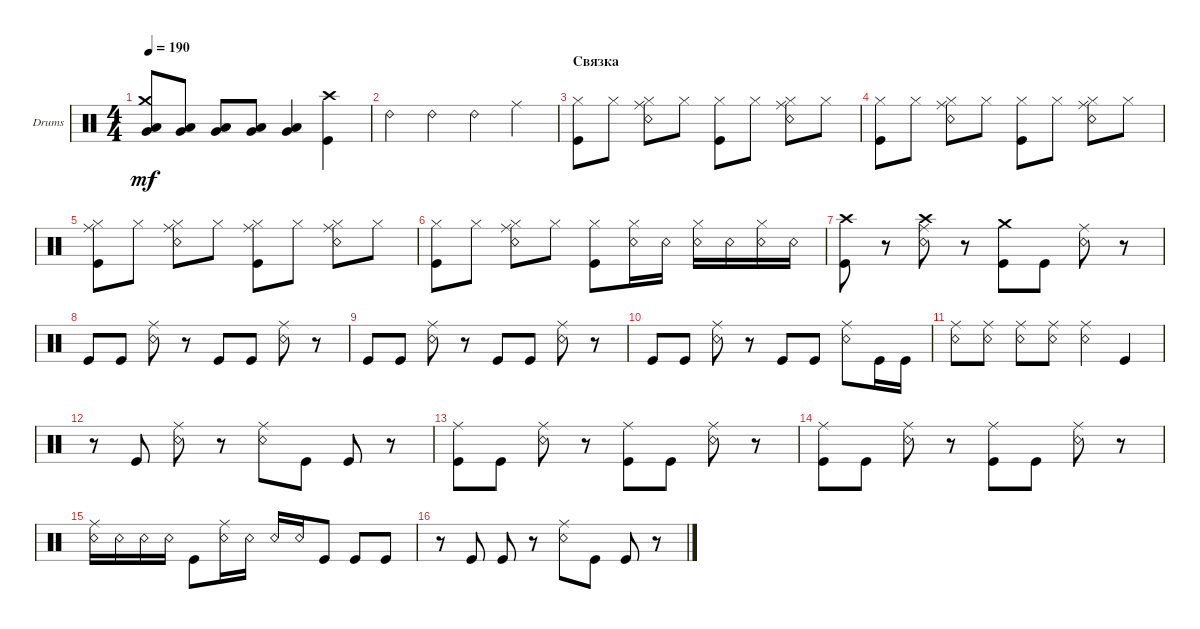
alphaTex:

\defaultSystemsLayout 4
\bracketExtendMode groupsimilarinstruments
\firstSystemTrackNameOrientation horizontal
\otherSystemsTrackNameOrientation horizontal
\track ("Drumkit" "Drums") {instrument percussion}
\staff {score}
\articulation defaults
\ts (4 4)
\tempo 190
\clef neutral
\ks c
("Very Low Tom (hit)" "Crash medium (hit)" "Low Tom (hit)").8{dy mf} ("Very Low Tom (hit)" "Low Tom (hit)").8 ("Very Low Tom (hit)" "Low Tom (hit)").8 ("Very Low Tom (hit)" "Low Tom (hit)").8 ("Very Low Tom (hit)" "Low Tom (hit)").4 ("Kick (hit)" "Crash high (hit)").4 |
"Ride (bell) 2".4 "Ride (bell) 2".4 "Ride (bell) 2".4 "Ride (middle)".4 |
\section ("" "Связка")
("Hi-Hat (closed)" "Kick (hit)").8 "Hi-Hat (closed)".8 ("Hi-Hat (closed)" "Snare (rim shot)" "Ride (middle)").8 "Hi-Hat (closed)".8 ("Hi-Hat (closed)" "Kick (hit)").8 "Hi-Hat (closed)".8 ("Hi-Hat (closed)" "Snare (rim shot)" "Ride (middle)").8 "Hi-Hat (closed)".8 |
("Hi-Hat (closed)" "Kick (hit)").8 "Hi-Hat (closed)".8 ("Hi-Hat (closed)" "Snare (rim shot)" "Ride (middle)").8 "Hi-Hat (closed)".8 ("Hi-Hat (closed)" "Kick (hit)").8 "Hi-Hat (closed)".8 ("Hi-Hat (closed)" "Snare (rim shot)" "Ride (middle)").8 "Hi-Hat (closed)".8 |
("Hi-Hat (closed)" "Kick (hit)" "Ride (middle)").8 "Hi-Hat (closed)".8 ("Hi-Hat (closed)" "Snare (rim shot)" "Ride (middle)").8 "Hi-Hat (closed)".8 ("Hi-Hat (closed)" "Kick (hit)" "Ride (middle)").8 "Hi-Hat (closed)".8 ("Hi-Hat (closed)" "Snare (rim shot)" "Ride (middle)").8 "Hi-Hat (closed)".8 |
("Hi-Hat (closed)" "Kick (hit)").8 "Hi-Hat (closed)".8 ("Hi-Hat (closed)" "Snare (rim shot)" "Ride (middle)").8 "Hi-Hat (closed)".8 ("Hi-Hat (closed)" "Kick (hit)").8 ("Hi-Hat (closed)" "Snare (rim shot)").16 "Snare (rim shot)".16 ("Hi-Hat (closed)" "Snare (rim shot)").16 "Snare (rim shot)".16 ("Hi-Hat (closed)" "Snare (rim shot)").16 "Snare (rim shot)".16 |
("Kick (hit)" "Crash high (hit)").8 r.8 ("Snare (rim shot)" "Ride (middle)" "Crash high (hit)").8 r.8 ("Kick (hit)" "Crash medium (hit)").8 "Kick (hit)".8 ("Snare (rim shot)" "Ride (middle)").8 r.8 |
"Kick (hit)".8 "Kick (hit)".8 ("Snare (rim shot)" "Ride (middle)").8 r.8 "Kick (hit)".8 "Kick (hit)".8 ("Snare (rim shot)" "Ride (middle)").8 r.8 |
"Kick (hit)".8 "Kick (hit)".8 ("Snare (rim shot)" "Ride (middle)").8 r.8 "Kick (hit)".8 "Kick (hit)".8 ("Snare (rim shot)" "Ride (middle)").8 r.8 |
"Kick (hit)".8 "Kick (hit)".8 ("Snare (rim shot)" "Ride (middle)").8 r.8 "Kick (hit)".8 "Kick (hit)".8 ("Snare (rim shot)" "Ride (middle)").8 "Kick (hit)".16 "Kick (hit)".16 |
("Snare (rim shot)" "Ride (middle)").8 ("Snare (rim shot)" "Ride (middle)").8 ("Snare (rim shot)" "Ride (middle)").8 ("Snare (rim shot)" "Ride (middle)").8 ("Snare (rim shot)" "Ride (middle)").4 "Kick (hit)".4 |
r.8 "Kick (hit)".8 ("Snare (rim shot)" "Ride (middle)").8 r.8 ("Snare (rim shot)" "Ride (middle)").8 "Kick (hit)".8 "Kick (hit)".8 r.8 |
("Kick (hit)" "Ride (middle)").8 "Kick (hit)".8 ("Snare (rim shot)" "Ride (middle)").8 r.8 ("Kick (hit)" "Ride (middle)").8 "Kick (hit)".8 ("Snare (rim shot)" "Ride (middle)").8 r.8 |
("Kick (hit)" "Ride (middle)").8 "Kick (hit)".8 ("Snare (rim shot)" "Ride (middle)").8 r.8 ("Kick (hit)" "Ride (middle)").8 "Kick (hit)".8 ("Snare (rim shot)" "Ride (middle)").8 r.8 |
("Snare (rim shot)" "Ride (middle)").16 "Snare (rim shot)".16 "Snare (rim shot)".16 "Snare (rim shot)".16 "Kick (hit)".8 ("Snare (rim shot)" "Ride (middle)").16 "Snare (rim shot)".16 "Snare (rim shot)".16 "Snare (rim shot)".16 "Kick (hit)".8 "Kick (hit)".8 "Kick (hit)".8 |
r.8 "Kick (hit)".8 "Kick (hit)".8 r.8 ("Snare (rim shot)" "Ride (middle)").8 "Kick (hit)".8 "Kick (hit)".8 r.8
